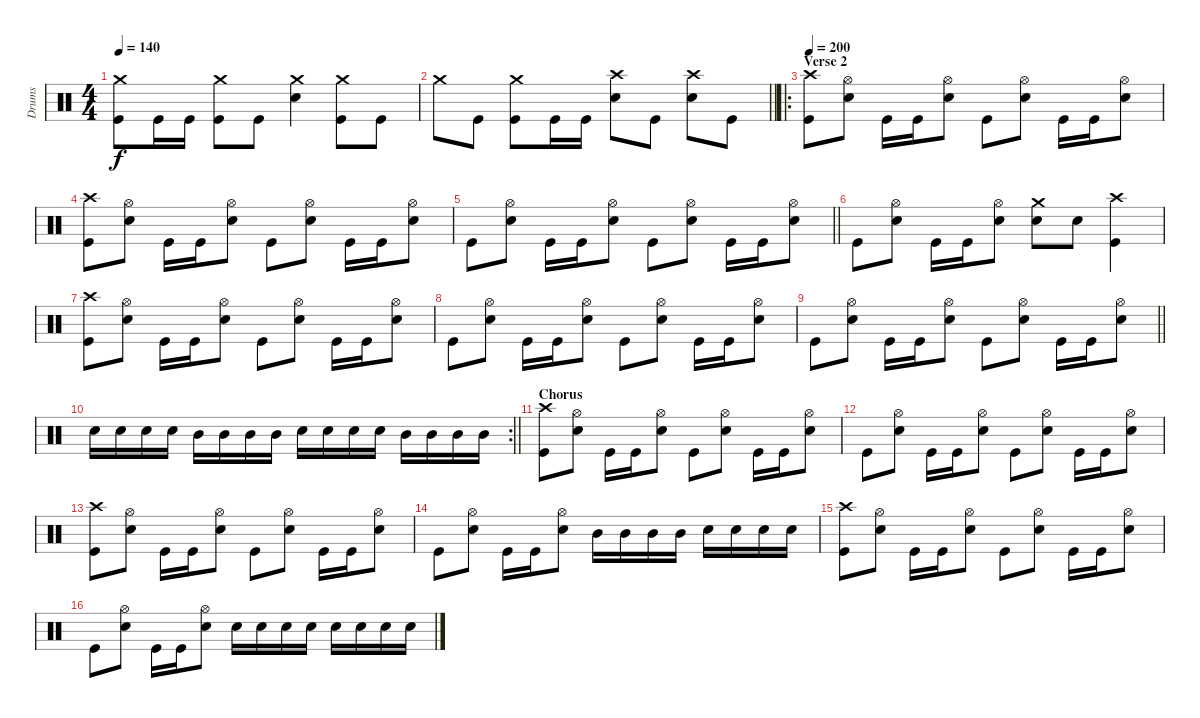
\track ("Drums" "Drums") {instrument percussion}
\staff {score}
\articulation defaults
\ts (4 4)
\tempo 140
\clef neutral
\ks c
("Crash medium (hit)" "Kick (hit)").8{dy f} "Kick (hit)".16 "Kick (hit)".16 ("Crash medium (hit)" "Kick (hit)").8 "Kick (hit)".8 ("Crash medium (hit)" "Snare (hit) 2").4 ("Crash medium (hit)" "Kick (hit)").8 "Kick (hit)".8 |
\barLineRight lightlight "Crash medium (hit)".8 "Kick (hit)".8
("Crash medium (hit)" "Kick (hit)").8 "Kick (hit)".16 "Kick (hit)".16 ("Crash high (hit)" "Snare (hit) 2").8 "Kick (hit)".8 ("Crash high (hit)" "Snare (hit) 2").8 "Kick (hit)".8 |
\ro
\section ("" "Verse 2")
\tempo 200
("Crash high (hit)" "Kick (hit)").8 ("Hi-Hat (open)" "Snare (hit) 2").8 "Kick (hit)".16 "Kick (hit)".16 ("Hi-Hat (open)" "Snare (hit) 2").8 "Kick (hit)".8 ("Hi-Hat (open)" "Snare (hit) 2").8 "Kick (hit)".16 "Kick (hit)".16 ("Hi-Hat (open)" "Snare (hit) 2").8 |
("Crash high (hit)" "Kick (hit)").8 ("Hi-Hat (open)" "Snare (hit) 2").8 "Kick (hit)".16 "Kick (hit)".16 ("Hi-Hat (open)" "Snare (hit) 2").8 "Kick (hit)".8 ("Hi-Hat (open)" "Snare (hit) 2").8 "Kick (hit)".16 "Kick (hit)".16 ("Hi-Hat (open)" "Snare (hit) 2").8 |
\barLineRight lightlight "Kick (hit)".8
("Hi-Hat (open)" "Snare (hit) 2").8 "Kick (hit)".16 "Kick (hit)".16 ("Hi-Hat (open)" "Snare (hit) 2").8 "Kick (hit)".8 ("Hi-Hat (open)" "Snare (hit) 2").8 "Kick (hit)".16 "Kick (hit)".16 ("Hi-Hat (open)" "Snare (hit) 2").8 |
"Kick (hit)".8 ("Hi-Hat (open)" "Snare (hit) 2").8 "Kick (hit)".16 "Kick (hit)".16 ("Hi-Hat (open)" "Snare (hit) 2").8 ("Crash medium (hit)" "Snare (hit) 2").8 "Snare (hit) 2".8 ("Crash high (hit)" "Kick (hit)").4 |
("Crash high (hit)" "Kick (hit)").8 ("Hi-Hat (open)" "Snare (hit) 2").8 "Kick (hit)".16 "Kick (hit)".16 ("Hi-Hat (open)" "Snare (hit) 2").8 "Kick (hit)".8 ("Hi-Hat (open)" "Snare (hit) 2").8 "Kick (hit)".16 "Kick (hit)".16 ("Hi-Hat (open)" "Snare (hit) 2").8 |
"Kick (hit)".8 ("Hi-Hat (open)" "Snare (hit) 2").8 "Kick (hit)".16 "Kick (hit)".16 ("Hi-Hat (open)" "Snare (hit) 2").8 "Kick (hit)".8 ("Hi-Hat (open)" "Snare (hit) 2").8 "Kick (hit)".16 "Kick (hit)".16 ("Hi-Hat (open)" "Snare (hit) 2").8 |
\barLineRight lightlight "Kick (hit)".8
("Hi-Hat (open)" "Snare (hit) 2").8 "Kick (hit)".16 "Kick (hit)".16 ("Hi-Hat (open)" "Snare (hit) 2").8 "Kick (hit)".8 ("Hi-Hat (open)" "Snare (hit) 2").8 "Kick (hit)".16 "Kick (hit)".16 ("Hi-Hat (open)" "Snare (hit) 2").8 |
\rc 2
\barLineRight lightlight "Snare (hit) 2".16 "Snare (hit) 2".16 "Snare (hit) 2".16 "Snare (hit) 2".16 "Mid Tom (hit)".16 "Mid Tom (hit)".16 "Mid Tom (hit)".16 "Mid Tom (hit)".16 "Snare (hit) 2".16 "Snare (hit) 2".16 "Snare (hit) 2".16 "Snare (hit) 2".16 "Mid Tom (hit)".16 "Mid Tom (hit)".16 "Mid Tom (hit)".16 "Mid Tom (hit)".16
|
\section ("" "Chorus")
("Crash high (hit)" "Kick (hit)").8 ("Hi-Hat (open)" "Snare (hit) 2").8 "Kick (hit)".16 "Kick (hit)".16 ("Hi-Hat (open)" "Snare (hit) 2").8 "Kick (hit)".8 ("Hi-Hat (open)" "Snare (hit) 2").8 "Kick (hit)".16 "Kick (hit)".16 ("Hi-Hat (open)" "Snare (hit) 2").8 |
"Kick (hit)".8 ("Hi-Hat (open)" "Snare (hit) 2").8 "Kick (hit)".16 "Kick (hit)".16 ("Hi-Hat (open)" "Snare (hit) 2").8 "Kick (hit)".8 ("Hi-Hat (open)" "Snare (hit) 2").8 "Kick (hit)".16 "Kick (hit)".16 ("Hi-Hat (open)" "Snare (hit) 2").8 |
("Crash high (hit)" "Kick (hit)").8 ("Hi-Hat (open)" "Snare (hit) 2").8 "Kick (hit)".16 "Kick (hit)".16 ("Hi-Hat (open)" "Snare (hit) 2").8 "Kick (hit)".8 ("Hi-Hat (open)" "Snare (hit) 2").8 "Kick (hit)".16 "Kick (hit)".16 ("Hi-Hat (open)" "Snare (hit) 2").8 |
"Kick (hit)".8 ("Hi-Hat (open)" "Snare (hit) 2").8 "Kick (hit)".16 "Kick (hit)".16 ("Hi-Hat (open)" "Snare (hit) 2").8 "Mid Tom (hit)".16 "Mid Tom (hit)".16 "Mid Tom (hit)".16 "Mid Tom (hit)".16 "Snare (hit) 2".16 "Snare (hit) 2".16 "Snare (hit) 2".16 "Snare (hit) 2".16 |
("Crash high (hit)" "Kick (hit)").8 ("Hi-Hat (open)" "Snare (hit) 2").8 "Kick (hit)".16 "Kick (hit)".16 ("Hi-Hat (open)" "Snare (hit) 2").8 "Kick (hit)".8 ("Hi-Hat (open)" "Snare (hit) 2").8 "Kick (hit)".16 "Kick (hit)".16 ("Hi-Hat (open)" "Snare (hit) 2").8 |
"Kick (hit)".8 ("Hi-Hat (open)" "Snare (hit) 2").8 "Kick (hit)".16 "Kick (hit)".16 ("Hi-Hat (open)" "Snare (hit) 2").8 "Snare (hit) 2".16 "Snare (hit) 2".16 "Snare (hit) 2".16 "Snare (hit) 2".16 "Snare (hit) 2".16 "Snare (hit) 2".16 "Snare (hit) 2".16 "Snare (hit) 2".16
